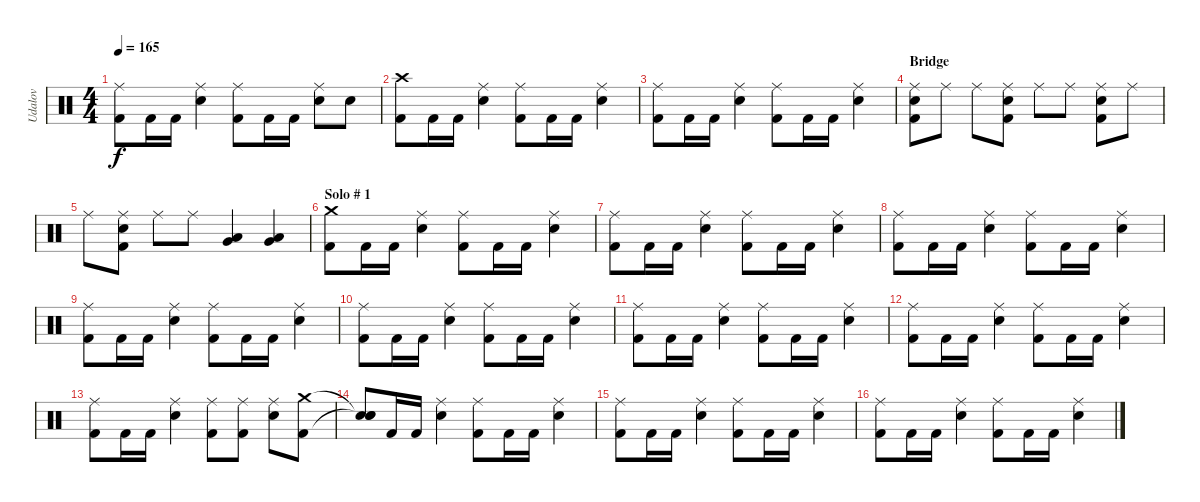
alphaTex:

\track ("Udalov" "Udalov") {instrument percussion}
\staff {score}
\articulation defaults
\ts (4 4)
\tempo 165
\clef neutral
\ks c
("Kick (hit) 2" "Ride (middle)").8{dy f} "Kick (hit) 2".16 "Kick (hit) 2".16 ("Snare (hit) 2" "Ride (middle)").4 ("Kick (hit) 2" "Ride (middle)").8 "Kick (hit) 2".16 "Kick (hit) 2".16 ("Snare (hit) 2" "Ride (middle)").8 "Snare (hit) 2".8 |
("Kick (hit) 2" "Crash high (hit)").8 "Kick (hit) 2".16 "Kick (hit) 2".16 ("Snare (hit) 2" "Ride (middle)").4 ("Kick (hit) 2" "Ride (middle)").8 "Kick (hit) 2".16 "Kick (hit) 2".16 ("Snare (hit) 2" "Ride (middle)").4 |
("Kick (hit) 2" "Ride (middle)").8 "Kick (hit) 2".16 "Kick (hit) 2".16 ("Snare (hit) 2" "Ride (middle)").4 ("Kick (hit) 2" "Ride (middle)").8 "Kick (hit) 2".16 "Kick (hit) 2".16 ("Snare (hit) 2" "Ride (middle)").4 |
\section ("" "Bridge")
("Snare (hit) 2" "Ride (middle)" "Kick (hit) 2").8 "Ride (middle)".8 "Ride (middle)".8 ("Snare (hit) 2" "Ride (middle)" "Kick (hit) 2").8 "Ride (middle)".8 "Ride (middle)".8 ("Snare (hit) 2" "Ride (middle)" "Kick (hit) 2").8 "Ride (middle)".8 |
"Ride (middle)".8 ("Snare (hit) 2" "Ride (middle)" "Kick (hit) 2").8 "Ride (middle)".8 "Ride (middle)".8 ("Low Tom (hit)" "Very Low Tom (hit)").4 ("Very Low Tom (hit)" "Low Floor Tom (hit)").4 |
\section ("" "Solo # 1")
("Kick (hit) 2" "Crash medium (hit)").8 "Kick (hit) 2".16 "Kick (hit) 2".16 ("Snare (hit) 2" "Ride (middle)").4 ("Kick (hit) 2" "Ride (middle)").8 "Kick (hit) 2".16 "Kick (hit) 2".16 ("Snare (hit) 2" "Ride (middle)").4 |
("Kick (hit) 2" "Ride (middle)").8 "Kick (hit) 2".16 "Kick (hit) 2".16 ("Snare (hit) 2" "Ride (middle)").4 ("Kick (hit) 2" "Ride (middle)").8 "Kick (hit) 2".16 "Kick (hit) 2".16 ("Snare (hit) 2" "Ride (middle)").4 |
("Kick (hit) 2" "Ride (middle)").8 "Kick (hit) 2".16 "Kick (hit) 2".16 ("Snare (hit) 2" "Ride (middle)").4 ("Kick (hit) 2" "Ride (middle)").8 "Kick (hit) 2".16 "Kick (hit) 2".16 ("Snare (hit) 2" "Ride (middle)").4 |
("Kick (hit) 2" "Ride (middle)").8 "Kick (hit) 2".16 "Kick (hit) 2".16 ("Snare (hit) 2" "Ride (middle)").4 ("Kick (hit) 2" "Ride (middle)").8 "Kick (hit) 2".16 "Kick (hit) 2".16 ("Snare (hit) 2" "Ride (middle)").4 |
("Kick (hit) 2" "Ride (middle)").8 "Kick (hit) 2".16 "Kick (hit) 2".16 ("Snare (hit) 2" "Ride (middle)").4 ("Kick (hit) 2" "Ride (middle)").8 "Kick (hit) 2".16 "Kick (hit) 2".16 ("Snare (hit) 2" "Ride (middle)").4 |
("Kick (hit) 2" "Ride (middle)").8 "Kick (hit) 2".16 "Kick (hit) 2".16 ("Snare (hit) 2" "Ride (middle)").4 ("Kick (hit) 2" "Ride (middle)").8 "Kick (hit) 2".16 "Kick (hit) 2".16 ("Snare (hit) 2" "Ride (middle)").4 |
("Kick (hit) 2" "Ride (middle)").8 "Kick (hit) 2".16 "Kick (hit) 2".16 ("Snare (hit) 2" "Ride (middle)").4 ("Kick (hit) 2" "Ride (middle)").8 "Kick (hit) 2".16 "Kick (hit) 2".16 ("Snare (hit) 2" "Ride (middle)").4 |
("Kick (hit) 2" "Ride (middle)").8 "Kick (hit) 2".16 "Kick (hit) 2".16 ("Snare (hit) 2" "Ride (middle)").4 ("Kick (hit) 2" "Ride (middle)").8 ("Kick (hit) 2" "Ride (middle)").8 ("Snare (hit) 2" "Ride (middle)").8 ("Kick (hit) 2" "Crash medium (hit)").8 |
("Snare (hit)"{t} "Snare (hit)"{t} "Snare (hit)").8 "Kick (hit) 2".16 "Kick (hit) 2".16 ("Snare (hit) 2" "Ride (middle)").4 ("Kick (hit) 2" "Ride (middle)").8 "Kick (hit) 2".16 "Kick (hit) 2".16 ("Snare (hit) 2" "Ride (middle)").4 |
("Kick (hit) 2" "Ride (middle)").8 "Kick (hit) 2".16 "Kick (hit) 2".16 ("Snare (hit) 2" "Ride (middle)").4 ("Kick (hit) 2" "Ride (middle)").8 "Kick (hit) 2".16 "Kick (hit) 2".16 ("Snare (hit) 2" "Ride (middle)").4 |
("Kick (hit) 2" "Ride (middle)").8 "Kick (hit) 2".16 "Kick (hit) 2".16 ("Snare (hit) 2" "Ride (middle)").4 ("Kick (hit) 2" "Ride (middle)").8 "Kick (hit) 2".16 "Kick (hit) 2".16 ("Snare (hit) 2" "Ride (middle)").4
